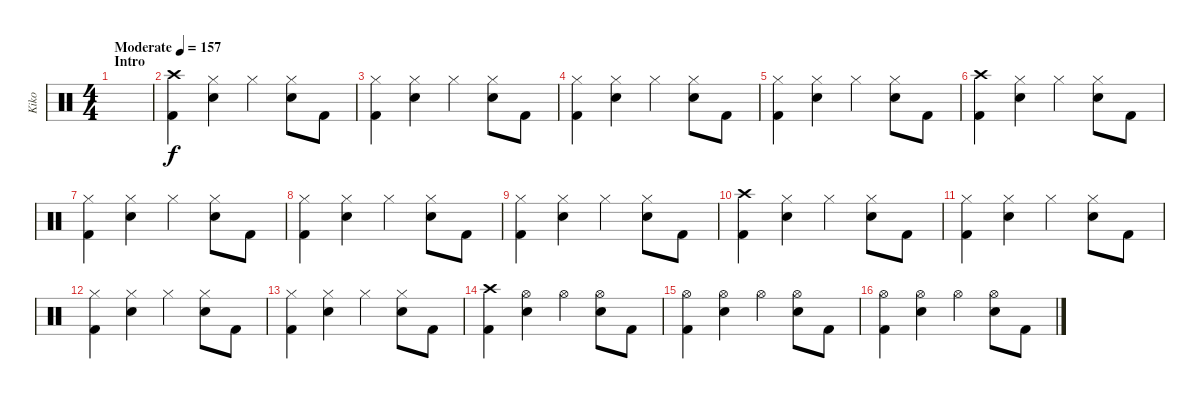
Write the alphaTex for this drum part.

\track ("Kiko" "Kiko") {instrument percussion}
\staff {score}
\articulation defaults
\ts (4 4)
\section ("" "Intro")
\tempo (157 "Moderate")
\clef neutral
\ks c
|
("Crash high (hit)" "Kick (hit) 2").4 ("Hi-Hat (closed)" "Electric Snare (hit)").4 "Hi-Hat (closed)".4 ("Hi-Hat (closed)" "Electric Snare (hit)").8 "Kick (hit) 2".8 |
("Hi-Hat (closed)" "Kick (hit) 2").4 ("Hi-Hat (closed)" "Electric Snare (hit)").4 "Hi-Hat (closed)".4 ("Hi-Hat (closed)" "Electric Snare (hit)").8 "Kick (hit) 2".8 |
("Hi-Hat (closed)" "Kick (hit) 2").4 ("Hi-Hat (closed)" "Electric Snare (hit)").4 "Hi-Hat (closed)".4 ("Hi-Hat (closed)" "Electric Snare (hit)").8 "Kick (hit) 2".8 |
("Hi-Hat (closed)" "Kick (hit) 2").4 ("Hi-Hat (closed)" "Electric Snare (hit)").4 "Hi-Hat (closed)".4 ("Hi-Hat (closed)" "Electric Snare (hit)").8 "Kick (hit) 2".8 |
("Crash high (hit)" "Kick (hit) 2").4 ("Hi-Hat (closed)" "Electric Snare (hit)").4 "Hi-Hat (closed)".4 ("Hi-Hat (closed)" "Electric Snare (hit)").8 "Kick (hit) 2".8 |
("Hi-Hat (closed)" "Kick (hit) 2").4 ("Hi-Hat (closed)" "Electric Snare (hit)").4 "Hi-Hat (closed)".4 ("Hi-Hat (closed)" "Electric Snare (hit)").8 "Kick (hit) 2".8 |
("Hi-Hat (closed)" "Kick (hit) 2").4 ("Hi-Hat (closed)" "Electric Snare (hit)").4 "Hi-Hat (closed)".4 ("Hi-Hat (closed)" "Electric Snare (hit)").8 "Kick (hit) 2".8 |
("Hi-Hat (closed)" "Kick (hit) 2").4 ("Hi-Hat (closed)" "Electric Snare (hit)").4 "Hi-Hat (closed)".4 ("Hi-Hat (closed)" "Electric Snare (hit)").8 "Kick (hit) 2".8 |
("Crash high (hit)" "Kick (hit) 2").4 ("Hi-Hat (closed)" "Electric Snare (hit)").4 "Hi-Hat (closed)".4 ("Hi-Hat (closed)" "Electric Snare (hit)").8 "Kick (hit) 2".8 |
("Hi-Hat (closed)" "Kick (hit) 2").4 ("Hi-Hat (closed)" "Electric Snare (hit)").4 "Hi-Hat (closed)".4 ("Hi-Hat (closed)" "Electric Snare (hit)").8 "Kick (hit) 2".8 |
("Hi-Hat (closed)" "Kick (hit) 2").4 ("Hi-Hat (closed)" "Electric Snare (hit)").4 "Hi-Hat (closed)".4 ("Hi-Hat (closed)" "Electric Snare (hit)").8 "Kick (hit) 2".8 |
("Hi-Hat (closed)" "Kick (hit) 2").4 ("Hi-Hat (closed)" "Electric Snare (hit)").4 "Hi-Hat (closed)".4 ("Hi-Hat (closed)" "Electric Snare (hit)").8 "Kick (hit) 2".8 |
("Crash high (hit)" "Kick (hit) 2").4 ("Hi-Hat (open)" "Electric Snare (hit)").4 "Hi-Hat (open)".4 ("Hi-Hat (open)" "Electric Snare (hit)").8 "Kick (hit) 2".8 |
("Hi-Hat (open)" "Kick (hit) 2").4 ("Hi-Hat (open)" "Electric Snare (hit)").4 "Hi-Hat (open)".4 ("Hi-Hat (open)" "Electric Snare (hit)").8 "Kick (hit) 2".8 |
("Hi-Hat (open)" "Kick (hit) 2").4 ("Hi-Hat (open)" "Electric Snare (hit)").4 "Hi-Hat (open)".4 ("Hi-Hat (open)" "Electric Snare (hit)").8 "Kick (hit) 2".8
